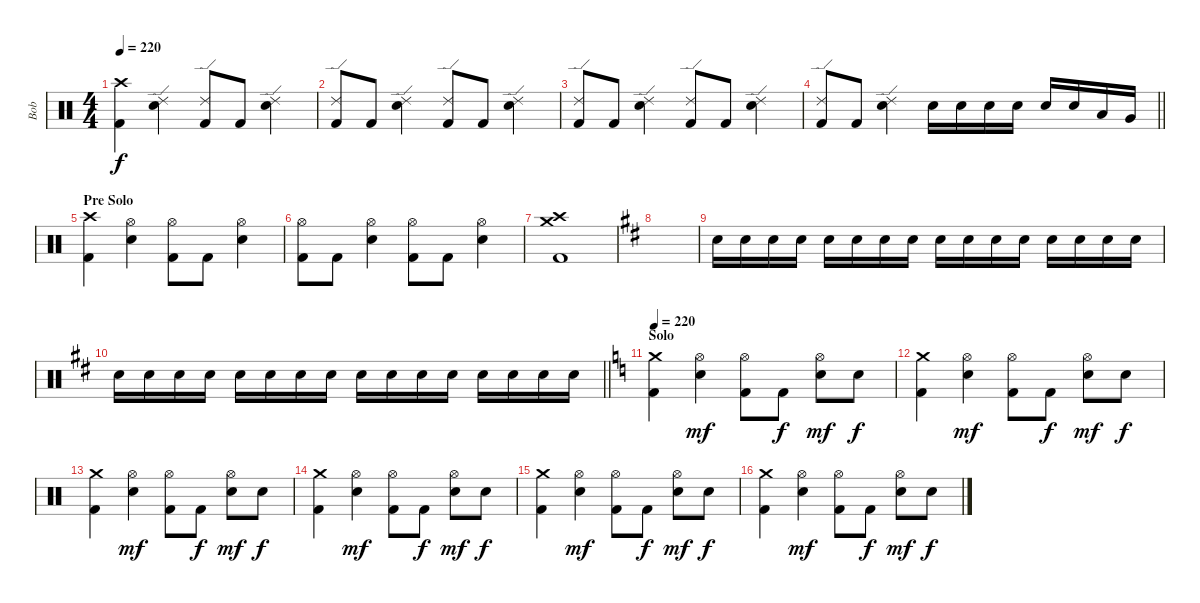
\track ("Bob" "Bob") {instrument percussion}
\staff {score}
\articulation defaults
\ts (4 4)
\tempo 220
\clef neutral
\ks c
("Crash high (hit)" "Kick (hit) 2").4{dy f} ("Ride (edge) 2" "Electric Snare (hit)").4 ("Ride (edge) 2" "Kick (hit) 2").8 "Kick (hit) 2".8 ("Ride (edge) 2" "Electric Snare (hit)").4 |
("Ride (edge) 2" "Kick (hit) 2").8 "Kick (hit) 2".8 ("Ride (edge) 2" "Electric Snare (hit)").4 ("Ride (edge) 2" "Kick (hit) 2").8 "Kick (hit) 2".8 ("Ride (edge) 2" "Electric Snare (hit)").4 |
("Ride (edge) 2" "Kick (hit) 2").8 "Kick (hit) 2".8 ("Ride (edge) 2" "Electric Snare (hit)").4 ("Ride (edge) 2" "Kick (hit) 2").8 "Kick (hit) 2".8 ("Ride (edge) 2" "Electric Snare (hit)").4 |
\barLineRight lightlight
("Ride (edge) 2" "Kick (hit) 2").8 "Kick (hit) 2".8 ("Ride (edge) 2" "Electric Snare (hit)").4 "Snare (hit) 2".16 "Snare (hit) 2".16 "Snare (hit) 2".16 "Snare (hit) 2".16 "Snare (hit) 2".16 "Snare (hit) 2".16 "Low Floor Tom (hit)".16 "Very Low Tom (hit)".16 |
\section ("" "Pre Solo")
("Crash high (hit)" "Kick (hit) 2").4 ("Hi-Hat (open)" "Electric Snare (hit)").4 ("Hi-Hat (open)" "Kick (hit) 2").8 "Kick (hit) 2".8 ("Hi-Hat (open)" "Electric Snare (hit)").4 |
("Hi-Hat (open)" "Kick (hit) 2").8 "Kick (hit) 2".8 ("Hi-Hat (open)" "Electric Snare (hit)").4 ("Hi-Hat (open)" "Kick (hit) 2").8 "Kick (hit) 2".8 ("Hi-Hat (open)" "Electric Snare (hit)").4 |
("Crash high (hit)" "Crash medium (hit)" "Kick (hit) 2").1 |
\ks d
|
"Electric Snare (hit)".16 "Electric Snare (hit)".16 "Electric Snare (hit)".16 "Electric Snare (hit)".16 "Electric Snare (hit)".16 "Electric Snare (hit)".16 "Electric Snare (hit)".16 "Electric Snare (hit)".16 "Electric Snare (hit)".16 "Electric Snare (hit)".16 "Electric Snare (hit)".16 "Electric Snare (hit)".16 "Electric Snare (hit)".16 "Electric Snare (hit)".16 "Electric Snare (hit)".16 "Electric Snare (hit)".16 |
\barLineRight lightlight "Electric Snare (hit)".16 "Electric Snare (hit)".16 "Electric Snare (hit)".16 "Electric Snare (hit)".16 "Electric Snare (hit)".16 "Electric Snare (hit)".16 "Electric Snare (hit)".16 "Electric Snare (hit)".16 "Electric Snare (hit)".16 "Electric Snare (hit)".16 "Electric Snare (hit)".16 "Electric Snare (hit)".16 "Electric Snare (hit)".16 "Electric Snare (hit)".16 "Electric Snare (hit)".16 "Electric Snare (hit)".16
|
\section ("" "Solo")
\tempo 220
\ks c
("Crash medium (hit)" "Kick (hit) 2").4 ("Hi-Hat (open)" "Electric Snare (hit)").4{dy mf} ("Hi-Hat (open)" "Kick (hit) 2").8 "Kick (hit) 2".8{dy f} ("Hi-Hat (open)" "Electric Snare (hit)").8{dy mf} "Electric Snare (hit)".8{dy f} |
("Crash medium (hit)" "Kick (hit) 2").4 ("Hi-Hat (open)" "Electric Snare (hit)").4{dy mf} ("Hi-Hat (open)" "Kick (hit) 2").8 "Kick (hit) 2".8{dy f} ("Hi-Hat (open)" "Electric Snare (hit)").8{dy mf} "Electric Snare (hit)".8{dy f} |
("Crash medium (hit)" "Kick (hit) 2").4 ("Hi-Hat (open)" "Electric Snare (hit)").4{dy mf} ("Hi-Hat (open)" "Kick (hit) 2").8 "Kick (hit) 2".8{dy f} ("Hi-Hat (open)" "Electric Snare (hit)").8{dy mf} "Electric Snare (hit)".8{dy f} |
("Crash medium (hit)" "Kick (hit) 2").4 ("Hi-Hat (open)" "Electric Snare (hit)").4{dy mf} ("Hi-Hat (open)" "Kick (hit) 2").8 "Kick (hit) 2".8{dy f} ("Hi-Hat (open)" "Electric Snare (hit)").8{dy mf} "Electric Snare (hit)".8{dy f} |
("Crash medium (hit)" "Kick (hit) 2").4 ("Hi-Hat (open)" "Electric Snare (hit)").4{dy mf} ("Hi-Hat (open)" "Kick (hit) 2").8 "Kick (hit) 2".8{dy f} ("Hi-Hat (open)" "Electric Snare (hit)").8{dy mf} "Electric Snare (hit)".8{dy f} |
("Crash medium (hit)" "Kick (hit) 2").4 ("Hi-Hat (open)" "Electric Snare (hit)").4{dy mf} ("Hi-Hat (open)" "Kick (hit) 2").8 "Kick (hit) 2".8{dy f} ("Hi-Hat (open)" "Electric Snare (hit)").8{dy mf} "Electric Snare (hit)".8{dy f}
